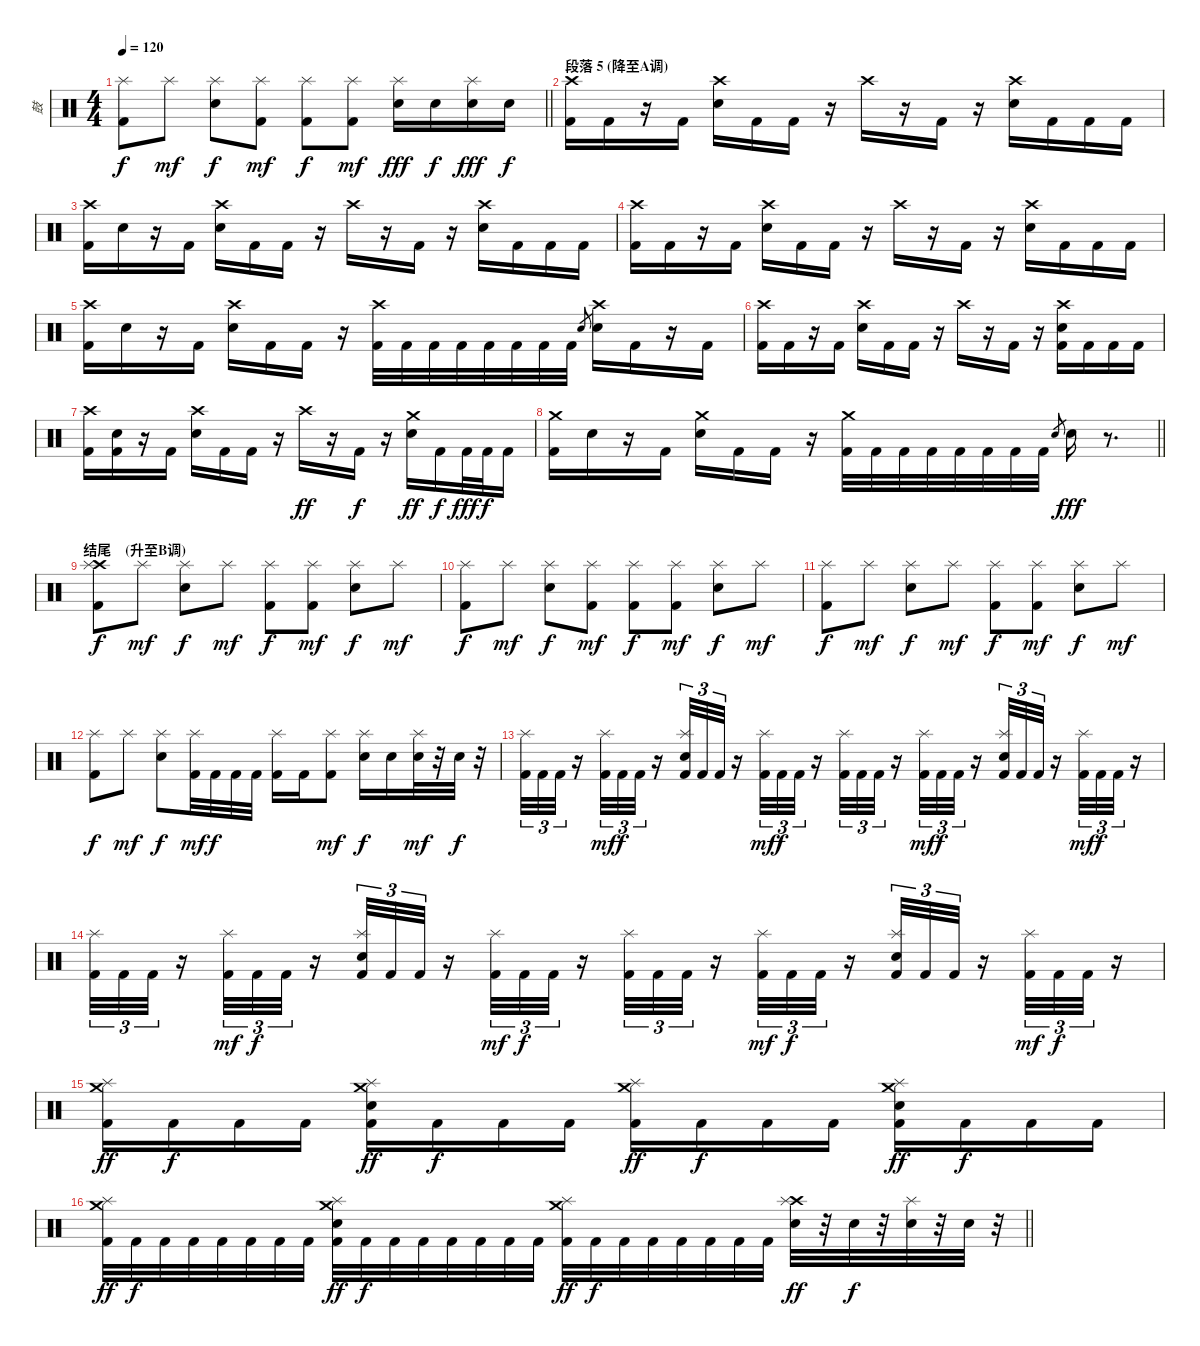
\track ("鼓" "鼓") {instrument percussion}
\staff {score}
\articulation defaults
\ts (4 4)
\tempo 120
\clef neutral
\barLineRight lightlight
\ks c
("Kick (hit) 2" "Splash (hit)").8{dy f} "Splash (hit)".8{dy mf} ("Electric Snare (hit)" "Splash (hit)").8{dy f} ("Kick (hit) 2" "Splash (hit)").8{dy mf} ("Kick (hit) 2" "Splash (hit)").8{dy f} ("Kick (hit) 2" "Splash (hit)").8{dy mf} ("Electric Snare (hit)" "Splash (hit)").16{dy fff} "Electric Snare (hit)".16{dy f} ("Electric Snare (hit)" "Splash (hit)").16{dy fff} "Electric Snare (hit)".16{dy f} |
\section ("" "段落 5 (降至A调)")
("Crash high (hit)" "Kick (hit) 2").16 "Kick (hit) 2".16 r.16 "Kick (hit) 2".16 ("Crash high (hit)" "Electric Snare (hit)").16 "Kick (hit) 2".16 "Kick (hit) 2".16 r.16 "Crash high (hit)".16 r.16 "Kick (hit) 2".16 r.16 ("Crash high (hit)" "Electric Snare (hit)").16 "Kick (hit) 2".16 "Kick (hit) 2".16 "Kick (hit) 2".16 |
("Crash high (hit)" "Kick (hit) 2").16 "Electric Snare (hit)".16 r.16 "Kick (hit) 2".16 ("Crash high (hit)" "Electric Snare (hit)").16 "Kick (hit) 2".16 "Kick (hit) 2".16 r.16 "Crash high (hit)".16 r.16 "Kick (hit) 2".16 r.16 ("Crash high (hit)" "Electric Snare (hit)").16 "Kick (hit) 2".16 "Kick (hit) 2".16 "Kick (hit) 2".16 |
("Crash high (hit)" "Kick (hit) 2").16 "Kick (hit) 2".16 r.16 "Kick (hit) 2".16 ("Crash high (hit)" "Electric Snare (hit)").16 "Kick (hit) 2".16 "Kick (hit) 2".16 r.16 "Crash high (hit)".16 r.16 "Kick (hit) 2".16 r.16 ("Crash high (hit)" "Electric Snare (hit)").16 "Kick (hit) 2".16 "Kick (hit) 2".16 "Kick (hit) 2".16 |
("Crash high (hit)" "Kick (hit) 2").16 "Electric Snare (hit)".16 r.16 "Kick (hit) 2".16 ("Crash high (hit)" "Electric Snare (hit)").16 "Kick (hit) 2".16 "Kick (hit) 2".16 r.16 ("Crash high (hit)" "Kick (hit) 2").32 "Kick (hit) 2".32 "Kick (hit) 2".32 "Kick (hit) 2".32 "Kick (hit) 2".32 "Kick (hit) 2".32 "Kick (hit) 2".32 "Kick (hit) 2".32 "Electric Snare (hit)".8{gr} ("Crash high (hit)" "Electric Snare (hit)").16 "Kick (hit) 2".16 r.16 "Kick (hit) 2".16 |
("Crash high (hit)" "Kick (hit) 2").16 "Kick (hit) 2".16 r.16 "Kick (hit) 2".16 ("Crash high (hit)" "Electric Snare (hit)").16 "Kick (hit) 2".16 "Kick (hit) 2".16 r.16 "Crash high (hit)".16 r.16 "Kick (hit) 2".16 r.16 ("Crash high (hit)" "Electric Snare (hit)" "Kick (hit) 2").16 "Kick (hit) 2".16 "Kick (hit) 2".16 "Kick (hit) 2".16 |
("Crash high (hit)" "Kick (hit) 2").16 ("Electric Snare (hit)" "Kick (hit) 2").16 r.16 "Kick (hit) 2".16 ("Crash high (hit)" "Electric Snare (hit)").16 "Kick (hit) 2".16 "Kick (hit) 2".16 r.16 "Crash high (hit)".16{dy ff} r.16 "Kick (hit) 2".16{dy f} r.16 ("Crash medium (hit)" "Electric Snare (hit)").16{dy ff} "Kick (hit) 2".16{dy f} "Kick (hit) 2".32{dy fff} "Kick (hit) 2".32{dy f} "Kick (hit) 2".16 |
\barLineRight lightlight
("Crash medium (hit)" "Kick (hit) 2").16 "Electric Snare (hit)".16 r.16 "Kick (hit) 2".16 ("Crash medium (hit)" "Electric Snare (hit)").16 "Kick (hit) 2".16 "Kick (hit) 2".16 r.16 ("Crash medium (hit)" "Kick (hit) 2").32 "Kick (hit) 2".32 "Kick (hit) 2".32 "Kick (hit) 2".32 "Kick (hit) 2".32 "Kick (hit) 2".32 "Kick (hit) 2".32 "Kick (hit) 2".32 "Electric Snare (hit)".8{gr} "Electric Snare (hit)".16{dy fff} r.8{d} |
\section ("" "结尾    (升至B调)")
("Crash high (hit)" "Kick (hit) 2" "Splash (hit)").8{dy f} "Splash (hit)".8{dy mf} ("Electric Snare (hit)" "Splash (hit)").8{dy f} "Splash (hit)".8{dy mf} ("Kick (hit) 2" "Splash (hit)").8{dy f} ("Kick (hit) 2" "Splash (hit)").8{dy mf} ("Electric Snare (hit)" "Splash (hit)").8{dy f} "Splash (hit)".8{dy mf} |
("Kick (hit) 2" "Splash (hit)").8{dy f} "Splash (hit)".8{dy mf} ("Electric Snare (hit)" "Splash (hit)").8{dy f} ("Kick (hit) 2" "Splash (hit)").8{dy mf} ("Kick (hit) 2" "Splash (hit)").8{dy f} ("Kick (hit) 2" "Splash (hit)").8{dy mf} ("Electric Snare (hit)" "Splash (hit)").8{dy f} "Splash (hit)".8{dy mf} |
("Kick (hit) 2" "Splash (hit)").8{dy f} "Splash (hit)".8{dy mf} ("Electric Snare (hit)" "Splash (hit)").8{dy f} "Splash (hit)".8{dy mf} ("Kick (hit) 2" "Splash (hit)").8{dy f} ("Kick (hit) 2" "Splash (hit)").8{dy mf} ("Electric Snare (hit)" "Splash (hit)").8{dy f} "Splash (hit)".8{dy mf} |
("Kick (hit) 2" "Splash (hit)").8{dy f} "Splash (hit)".8{dy mf} ("Electric Snare (hit)" "Splash (hit)").8{dy f} ("Kick (hit) 2" "Splash (hit)").32{dy mf} "Kick (hit) 2".32{dy f} "Kick (hit) 2".32 "Kick (hit) 2".32 ("Kick (hit) 2" "Splash (hit)").16 "Kick (hit) 2".16 ("Kick (hit) 2" "Splash (hit)").8{dy mf} ("Electric Snare (hit)" "Splash (hit)").16{dy f} "Electric Snare (hit)".16 ("Electric Snare (hit)" "Splash (hit)").32{dy mf} r.32 "Electric Snare (hit)".32{dy f} r.32 |
("Splash (hit)" "Kick (hit) 2").32{tu (3 2)} "Kick (hit) 2".32{tu (3 2)} "Kick (hit) 2".32{tu (3 2)} r.16 ("Splash (hit)" "Kick (hit) 2").32{tu (3 2) dy mf} "Kick (hit) 2".32{tu (3 2) dy f} "Kick (hit) 2".32{tu (3 2)} r.16 ("Electric Snare (hit)" "Splash (hit)" "Kick (hit) 2").32{tu (3 2)} "Kick (hit) 2".32{tu (3 2)} "Kick (hit) 2".32{tu (3 2)} r.16 ("Splash (hit)" "Kick (hit) 2").32{tu (3 2) dy mf} "Kick (hit) 2".32{tu (3 2) dy f} "Kick (hit) 2".32{tu (3 2)} r.16 ("Splash (hit)" "Kick (hit) 2").32{tu (3 2)} "Kick (hit) 2".32{tu (3 2)} "Kick (hit) 2".32{tu (3 2)} r.16 ("Splash (hit)" "Kick (hit) 2").32{tu (3 2) dy mf} "Kick (hit) 2".32{tu (3 2) dy f} "Kick (hit) 2".32{tu (3 2)} r.16 ("Electric Snare (hit)" "Splash (hit)" "Kick (hit) 2").32{tu (3 2)} "Kick (hit) 2".32{tu (3 2)} "Kick (hit) 2".32{tu (3 2)} r.16 ("Splash (hit)" "Kick (hit) 2").32{tu (3 2) dy mf} "Kick (hit) 2".32{tu (3 2) dy f} "Kick (hit) 2".32{tu (3 2)} r.16 |
("Splash (hit)" "Kick (hit) 2").32{tu (3 2)} "Kick (hit) 2".32{tu (3 2)} "Kick (hit) 2".32{tu (3 2)} r.16 ("Splash (hit)" "Kick (hit) 2").32{tu (3 2) dy mf} "Kick (hit) 2".32{tu (3 2) dy f} "Kick (hit) 2".32{tu (3 2)} r.16 ("Electric Snare (hit)" "Splash (hit)" "Kick (hit) 2").32{tu (3 2)} "Kick (hit) 2".32{tu (3 2)} "Kick (hit) 2".32{tu (3 2)} r.16 ("Splash (hit)" "Kick (hit) 2").32{tu (3 2) dy mf} "Kick (hit) 2".32{tu (3 2) dy f} "Kick (hit) 2".32{tu (3 2)} r.16 ("Splash (hit)" "Kick (hit) 2").32{tu (3 2)} "Kick (hit) 2".32{tu (3 2)} "Kick (hit) 2".32{tu (3 2)} r.16 ("Splash (hit)" "Kick (hit) 2").32{tu (3 2) dy mf} "Kick (hit) 2".32{tu (3 2) dy f} "Kick (hit) 2".32{tu (3 2)} r.16 ("Electric Snare (hit)" "Splash (hit)" "Kick (hit) 2").32{tu (3 2)} "Kick (hit) 2".32{tu (3 2)} "Kick (hit) 2".32{tu (3 2)} r.16 ("Splash (hit)" "Kick (hit) 2").32{tu (3 2) dy mf} "Kick (hit) 2".32{tu (3 2) dy f} "Kick (hit) 2".32{tu (3 2)} r.16 |
("Crash medium (hit)" "Splash (hit)" "Kick (hit) 2").16{dy ff} "Kick (hit) 2".16{dy f} "Kick (hit) 2".16 "Kick (hit) 2".16 ("Crash medium (hit)" "Electric Snare (hit)" "Splash (hit)" "Kick (hit) 2").16{dy ff} "Kick (hit) 2".16{dy f} "Kick (hit) 2".16 "Kick (hit) 2".16 ("Crash medium (hit)" "Splash (hit)" "Kick (hit) 2").16{dy ff} "Kick (hit) 2".16{dy f} "Kick (hit) 2".16 "Kick (hit) 2".16 ("Crash medium (hit)" "Electric Snare (hit)" "Splash (hit)" "Kick (hit) 2").16{dy ff} "Kick (hit) 2".16{dy f} "Kick (hit) 2".16 "Kick (hit) 2".16 |
\barLineRight lightlight
("Crash medium (hit)" "Splash (hit)" "Kick (hit) 2").32{dy ff} "Kick (hit) 2".32{dy f} "Kick (hit) 2".32 "Kick (hit) 2".32 "Kick (hit) 2".32 "Kick (hit) 2".32 "Kick (hit) 2".32 "Kick (hit) 2".32 ("Crash medium (hit)" "Electric Snare (hit)" "Splash (hit)" "Kick (hit) 2").32{dy ff} "Kick (hit) 2".32{dy f} "Kick (hit) 2".32 "Kick (hit) 2".32 "Kick (hit) 2".32 "Kick (hit) 2".32 "Kick (hit) 2".32 "Kick (hit) 2".32 ("Crash medium (hit)" "Splash (hit)" "Kick (hit) 2").32{dy ff} "Kick (hit) 2".32{dy f} "Kick (hit) 2".32 "Kick (hit) 2".32 "Kick (hit) 2".32 "Kick (hit) 2".32 "Kick (hit) 2".32 "Kick (hit) 2".32 ("Crash high (hit)" "Electric Snare (hit)" "Splash (hit)").32{dy ff} r.32 "Electric Snare (hit)".32{dy f} r.32 ("Electric Snare (hit)" "Splash (hit)").32 r.32 "Electric Snare (hit)".32 r.32
